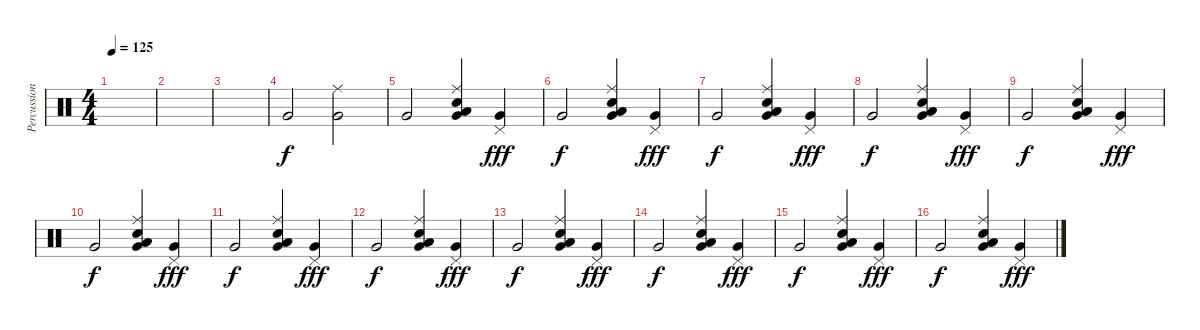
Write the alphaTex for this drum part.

\track ("Percussion" "Percussion") {instrument percussion}
\staff {score}
\articulation defaults
\ts (4 4)
\tempo 125
\clef neutral
\ks c
|
|
|
"Very Low Tom (hit)".2{dy f} ("Very Low Tom (hit)" "Ride (middle)").2 |
"Very Low Tom (hit)".2 ("Very Low Tom (hit)" "Low Floor Tom (hit)" "Ride (middle)" "Snare (hit) 2").4 ("Very Low Tom (hit)" "Pedal Hi-Hat (hit)").4{dy fff} |
"Very Low Tom (hit)".2{dy f} ("Very Low Tom (hit)" "Low Floor Tom (hit)" "Ride (middle)" "Snare (hit) 2").4 ("Very Low Tom (hit)" "Pedal Hi-Hat (hit)").4{dy fff} |
"Very Low Tom (hit)".2{dy f} ("Very Low Tom (hit)" "Low Floor Tom (hit)" "Ride (middle)" "Snare (hit) 2").4 ("Very Low Tom (hit)" "Pedal Hi-Hat (hit)").4{dy fff} |
"Very Low Tom (hit)".2{dy f} ("Very Low Tom (hit)" "Low Floor Tom (hit)" "Ride (middle)" "Snare (hit) 2").4 ("Very Low Tom (hit)" "Pedal Hi-Hat (hit)").4{dy fff} |
"Very Low Tom (hit)".2{dy f} ("Very Low Tom (hit)" "Low Floor Tom (hit)" "Ride (middle)" "Snare (hit) 2").4 ("Very Low Tom (hit)" "Pedal Hi-Hat (hit)").4{dy fff} |
"Very Low Tom (hit)".2{dy f} ("Very Low Tom (hit)" "Low Floor Tom (hit)" "Ride (middle)" "Snare (hit) 2").4 ("Very Low Tom (hit)" "Pedal Hi-Hat (hit)").4{dy fff} |
"Very Low Tom (hit)".2{dy f} ("Very Low Tom (hit)" "Low Floor Tom (hit)" "Ride (middle)" "Snare (hit) 2").4 ("Very Low Tom (hit)" "Pedal Hi-Hat (hit)").4{dy fff} |
"Very Low Tom (hit)".2{dy f} ("Very Low Tom (hit)" "Low Floor Tom (hit)" "Ride (middle)" "Snare (hit) 2").4 ("Very Low Tom (hit)" "Pedal Hi-Hat (hit)").4{dy fff} |
"Very Low Tom (hit)".2{dy f} ("Very Low Tom (hit)" "Low Floor Tom (hit)" "Ride (middle)" "Snare (hit) 2").4 ("Very Low Tom (hit)" "Pedal Hi-Hat (hit)").4{dy fff} |
"Very Low Tom (hit)".2{dy f} ("Very Low Tom (hit)" "Low Floor Tom (hit)" "Ride (middle)" "Snare (hit) 2").4 ("Very Low Tom (hit)" "Pedal Hi-Hat (hit)").4{dy fff} |
"Very Low Tom (hit)".2{dy f} ("Very Low Tom (hit)" "Low Floor Tom (hit)" "Ride (middle)" "Snare (hit) 2").4 ("Very Low Tom (hit)" "Pedal Hi-Hat (hit)").4{dy fff} |
"Very Low Tom (hit)".2{dy f} ("Very Low Tom (hit)" "Low Floor Tom (hit)" "Ride (middle)" "Snare (hit) 2").4 ("Very Low Tom (hit)" "Pedal Hi-Hat (hit)").4{dy fff}
